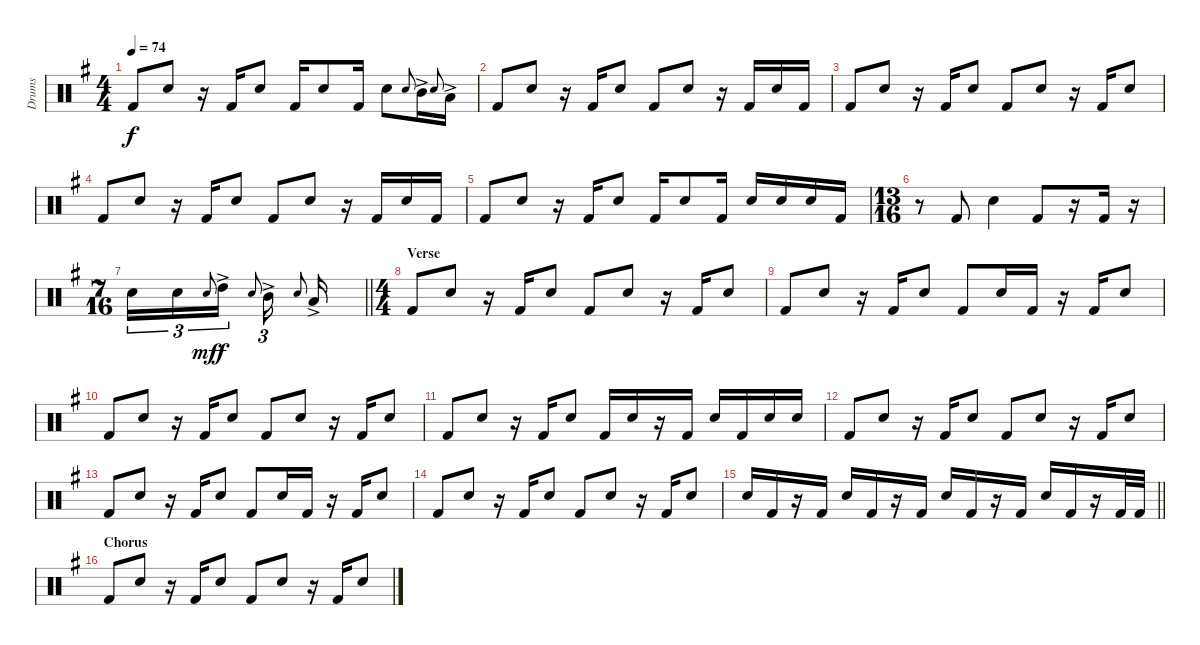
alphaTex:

\track ("Drums" "Drums") {instrument percussion}
\staff {score}
\articulation defaults
\ts (4 4)
\tempo 74
\clef neutral
\ks g "Kick (hit) 2".8{dy f} "Snare (hit) 2".8
r.16 "Kick (hit) 2".16 "Snare (hit) 2".8 "Kick (hit) 2".16 "Snare (hit) 2".8 "Kick (hit) 2".16 "Snare (hit) 2".8 "Snare (hit)".8{gr onbeat} "Mid Tom (hit)"{ac}.16 "Snare (hit)".8{gr onbeat} "Low Tom (hit)"{ac}.16 |
"Kick (hit) 2".8 "Snare (hit) 2".8 r.16 "Kick (hit) 2".16 "Snare (hit) 2".8 "Kick (hit) 2".8 "Snare (hit) 2".8 r.16 "Kick (hit) 2".16 "Snare (hit) 2".16 "Kick (hit) 2".16 |
"Kick (hit) 2".8 "Snare (hit) 2".8 r.16 "Kick (hit) 2".16 "Snare (hit) 2".8 "Kick (hit) 2".8 "Snare (hit) 2".8 r.16 "Kick (hit) 2".16 "Snare (hit) 2".8 |
"Kick (hit) 2".8 "Snare (hit) 2".8 r.16 "Kick (hit) 2".16 "Snare (hit) 2".8 "Kick (hit) 2".8 "Snare (hit) 2".8 r.16 "Kick (hit) 2".16 "Snare (hit) 2".16 "Kick (hit) 2".16 |
"Kick (hit) 2".8 "Snare (hit) 2".8 r.16 "Kick (hit) 2".16 "Snare (hit) 2".8 "Kick (hit) 2".16 "Snare (hit) 2".8 "Kick (hit) 2".16 "Snare (hit) 2".16 "Snare (hit) 2".16 "Snare (hit) 2".16 "Kick (hit) 2".16 |
\ts (13 16)
r.8 "Kick (hit) 2".8 "Snare (hit) 2".4 "Kick (hit) 2".8 r.16 "Kick (hit) 2".16 r.16 |
\ts (7 16)
\barLineRight lightlight "Snare (hit) 2".16{tu (3 2)} "Snare (hit) 2".16{tu (3 2)} "Snare (hit)".8{gr onbeat dy mf} "High Tom (hit)"{ac}.16{tu (3 2) dy f} "Snare (hit)".8{gr onbeat} "Mid Tom (hit)"{ac}.16{tu (3 2)} "Snare (hit)".8{gr onbeat} "Low Tom (hit)"{ac}.16
|
\ts (4 4)
\section ("" "Verse")
"Kick (hit) 2".8 "Snare (hit) 2".8 r.16 "Kick (hit) 2".16 "Snare (hit) 2".8 "Kick (hit) 2".8 "Snare (hit) 2".8 r.16 "Kick (hit) 2".16 "Snare (hit) 2".8 |
"Kick (hit) 2".8 "Snare (hit) 2".8 r.16 "Kick (hit) 2".16 "Snare (hit) 2".8 "Kick (hit) 2".8 "Snare (hit) 2".16 "Kick (hit) 2".16 r.16 "Kick (hit) 2".16 "Snare (hit) 2".8 |
"Kick (hit) 2".8 "Snare (hit) 2".8 r.16 "Kick (hit) 2".16 "Snare (hit) 2".8 "Kick (hit) 2".8 "Snare (hit) 2".8 r.16 "Kick (hit) 2".16 "Snare (hit) 2".8 |
"Kick (hit) 2".8 "Snare (hit) 2".8 r.16 "Kick (hit) 2".16 "Snare (hit) 2".8 "Kick (hit) 2".16 "Snare (hit) 2".16 r.16 "Kick (hit) 2".16 "Snare (hit) 2".16 "Kick (hit) 2".16 "Snare (hit) 2".16 "Snare (hit) 2".16 |
"Kick (hit) 2".8 "Snare (hit) 2".8 r.16 "Kick (hit) 2".16 "Snare (hit) 2".8 "Kick (hit) 2".8 "Snare (hit) 2".8 r.16 "Kick (hit) 2".16 "Snare (hit) 2".8 |
"Kick (hit) 2".8 "Snare (hit) 2".8 r.16 "Kick (hit) 2".16 "Snare (hit) 2".8 "Kick (hit) 2".8 "Snare (hit) 2".16 "Kick (hit) 2".16 r.16 "Kick (hit) 2".16 "Snare (hit) 2".8 |
"Kick (hit) 2".8 "Snare (hit) 2".8 r.16 "Kick (hit) 2".16 "Snare (hit) 2".8 "Kick (hit) 2".8 "Snare (hit) 2".8 r.16 "Kick (hit) 2".16 "Snare (hit) 2".8 |
\barLineRight lightlight "Snare (hit) 2".16 "Kick (hit) 2".16
r.16 "Kick (hit) 2".16 "Snare (hit) 2".16 "Kick (hit) 2".16 r.16 "Kick (hit) 2".16 "Snare (hit) 2".16 "Kick (hit) 2".16 r.16 "Kick (hit) 2".16 "Snare (hit) 2".16 "Kick (hit) 2".16 r.16 "Kick (hit) 2".32 "Kick (hit) 2".32 |
\section ("" "Chorus")
"Kick (hit) 2".8 "Snare (hit) 2".8 r.16 "Kick (hit) 2".16 "Snare (hit) 2".8 "Kick (hit) 2".8 "Snare (hit) 2".8 r.16 "Kick (hit) 2".16 "Snare (hit) 2".8
